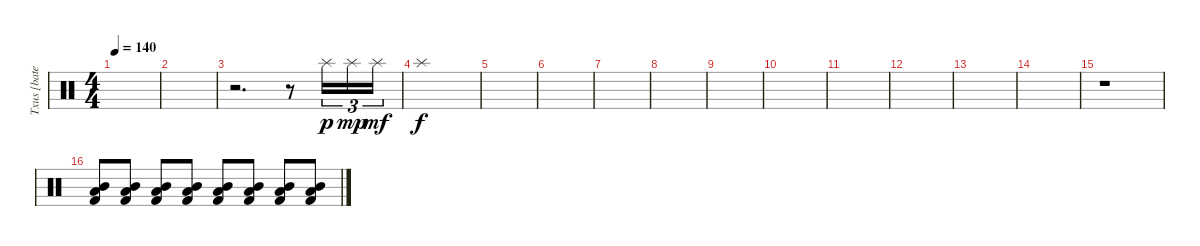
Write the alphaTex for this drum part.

\track ("Txus [bateria]" "Txus [bate") {instrument percussion}
\staff {score}
\articulation defaults
\ts (4 4)
\tempo 140
\clef neutral
\ks c
|
|
r.2{d} r.8 "Splash (hit)".16{tu (3 2) dy p} "Splash (hit)".16{tu (3 2) dy mp} "Splash (hit)".16{tu (3 2) dy mf} |
"Splash (hit)".1{dy f} |
|
|
|
|
|
|
|
|
|
|
r.1{volume 0} |
("Mid Tom (hit)" "Low Floor Tom (hit)" "Kick (hit) 2").8{volume 8} ("Mid Tom (hit)" "Low Floor Tom (hit)" "Kick (hit) 2").8 ("Mid Tom (hit)" "Low Floor Tom (hit)" "Kick (hit) 2").8 ("Mid Tom (hit)" "Low Floor Tom (hit)" "Kick (hit) 2").8 ("Mid Tom (hit)" "Low Floor Tom (hit)" "Kick (hit) 2").8 ("Mid Tom (hit)" "Low Floor Tom (hit)" "Kick (hit) 2").8 ("Mid Tom (hit)" "Low Floor Tom (hit)" "Kick (hit) 2").8 ("Mid Tom (hit)" "Low Floor Tom (hit)" "Kick (hit) 2").8
